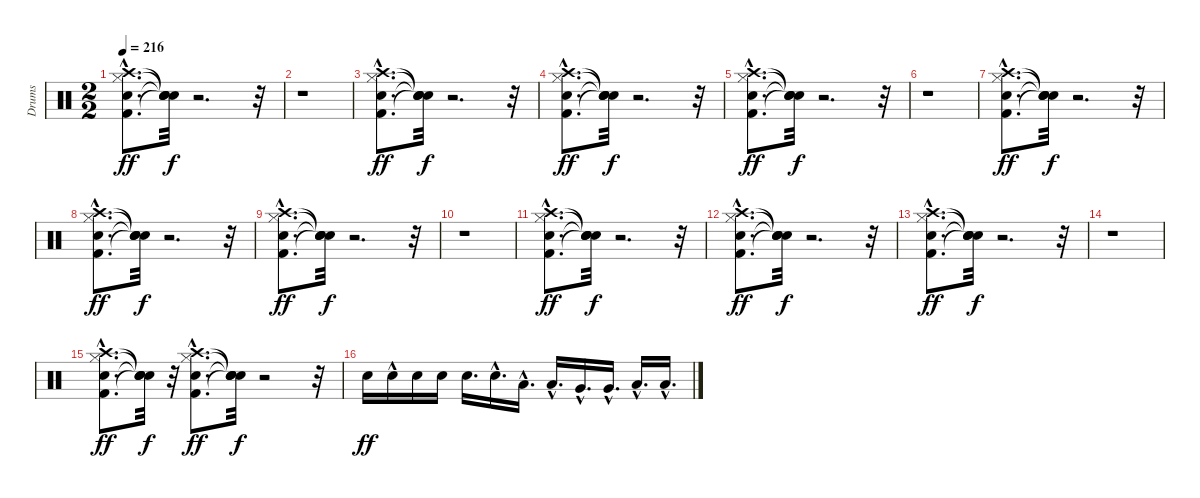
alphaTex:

\track ("Drums" "Drums") {instrument percussion}
\staff {score}
\articulation defaults
\ts (2 2)
\tempo 216
\clef neutral
\ks c
("Kick (hit) 2"{hac} "Snare (hit) 2"{hac} "Hi-Hat (closed)"{hac} "Crash high (hit)"{hac}).8{d dy ff} ("Snare (hit)"{t} "Snare (hit)"{t} "Snare (hit)"{t} "Snare (hit)"{t}).32{dy f} r.2{d} r.32 |
r.1 |
("Kick (hit) 2"{hac} "Snare (hit) 2"{hac} "Hi-Hat (closed)"{hac} "Crash high (hit)"{hac}).8{d dy ff} ("Snare (hit)"{t} "Snare (hit)"{t} "Snare (hit)"{t} "Snare (hit)"{t}).32{dy f} r.2{d} r.32 |
("Kick (hit) 2"{hac} "Snare (hit) 2"{hac} "Hi-Hat (closed)"{hac} "Crash high (hit)"{hac}).8{d dy ff} ("Snare (hit)"{t} "Snare (hit)"{t} "Snare (hit)"{t} "Snare (hit)"{t}).32{dy f} r.2{d} r.32 |
("Kick (hit) 2"{hac} "Snare (hit) 2"{hac} "Hi-Hat (closed)"{hac} "Crash high (hit)"{hac}).8{d dy ff} ("Snare (hit)"{t} "Snare (hit)"{t} "Snare (hit)"{t} "Snare (hit)"{t}).32{dy f} r.2{d} r.32 |
r.1 |
("Kick (hit) 2"{hac} "Snare (hit) 2"{hac} "Hi-Hat (closed)"{hac} "Crash high (hit)"{hac}).8{d dy ff} ("Snare (hit)"{t} "Snare (hit)"{t} "Snare (hit)"{t} "Snare (hit)"{t}).32{dy f} r.2{d} r.32 |
("Kick (hit) 2"{hac} "Snare (hit) 2"{hac} "Hi-Hat (closed)"{hac} "Crash high (hit)"{hac}).8{d dy ff} ("Snare (hit)"{t} "Snare (hit)"{t} "Snare (hit)"{t} "Snare (hit)"{t}).32{dy f} r.2{d} r.32 |
("Kick (hit) 2"{hac} "Snare (hit) 2"{hac} "Hi-Hat (closed)"{hac} "Crash high (hit)"{hac}).8{d dy ff} ("Snare (hit)"{t} "Snare (hit)"{t} "Snare (hit)"{t} "Snare (hit)"{t}).32{dy f} r.2{d} r.32 |
r.1 |
("Kick (hit) 2"{hac} "Snare (hit) 2"{hac} "Hi-Hat (closed)"{hac} "Crash high (hit)"{hac}).8{d dy ff} ("Snare (hit)"{t} "Snare (hit)"{t} "Snare (hit)"{t} "Snare (hit)"{t}).32{dy f} r.2{d} r.32 |
("Kick (hit) 2"{hac} "Snare (hit) 2"{hac} "Hi-Hat (closed)"{hac} "Crash high (hit)"{hac}).8{d dy ff} ("Snare (hit)"{t} "Snare (hit)"{t} "Snare (hit)"{t} "Snare (hit)"{t}).32{dy f} r.2{d} r.32 |
("Kick (hit) 2"{hac} "Snare (hit) 2"{hac} "Hi-Hat (closed)"{hac} "Crash high (hit)"{hac}).8{d dy ff} ("Snare (hit)"{t} "Snare (hit)"{t} "Snare (hit)"{t} "Snare (hit)"{t}).32{dy f} r.2{d} r.32 |
r.1 |
("Kick (hit) 2"{hac} "Snare (hit) 2"{hac} "Hi-Hat (closed)"{hac} "Crash high (hit)"{hac}).8{d dy ff} ("Snare (hit)"{t} "Snare (hit)"{t} "Snare (hit)"{t} "Snare (hit)"{t}).32{dy f} r.32 ("Kick (hit) 2"{hac} "Snare (hit) 2"{hac} "Hi-Hat (closed)"{hac} "Crash high (hit)"{hac}).8{d dy ff} ("Snare (hit)"{t} "Snare (hit)"{t} "Snare (hit)"{t} "Snare (hit)"{t}).32{dy f} r.2 r.32 |
"Electric Snare (hit)".16{dy ff} "Electric Snare (hit)"{hac}.16 "Electric Snare (hit)".16 "Electric Snare (hit)".16 "Electric Snare (hit)".16{d} "Electric Snare (hit)"{hac}.16{d} "Low Tom (hit)"{hac}.16{d} "Low Tom (hit)"{hac}.16{d} "Very Low Tom (hit)"{hac}.16{d} "Very Low Tom (hit)"{hac}.16{d} "Low Floor Tom (hit)"{hac}.16{d} "Low Floor Tom (hit)"{hac}.16{d}
